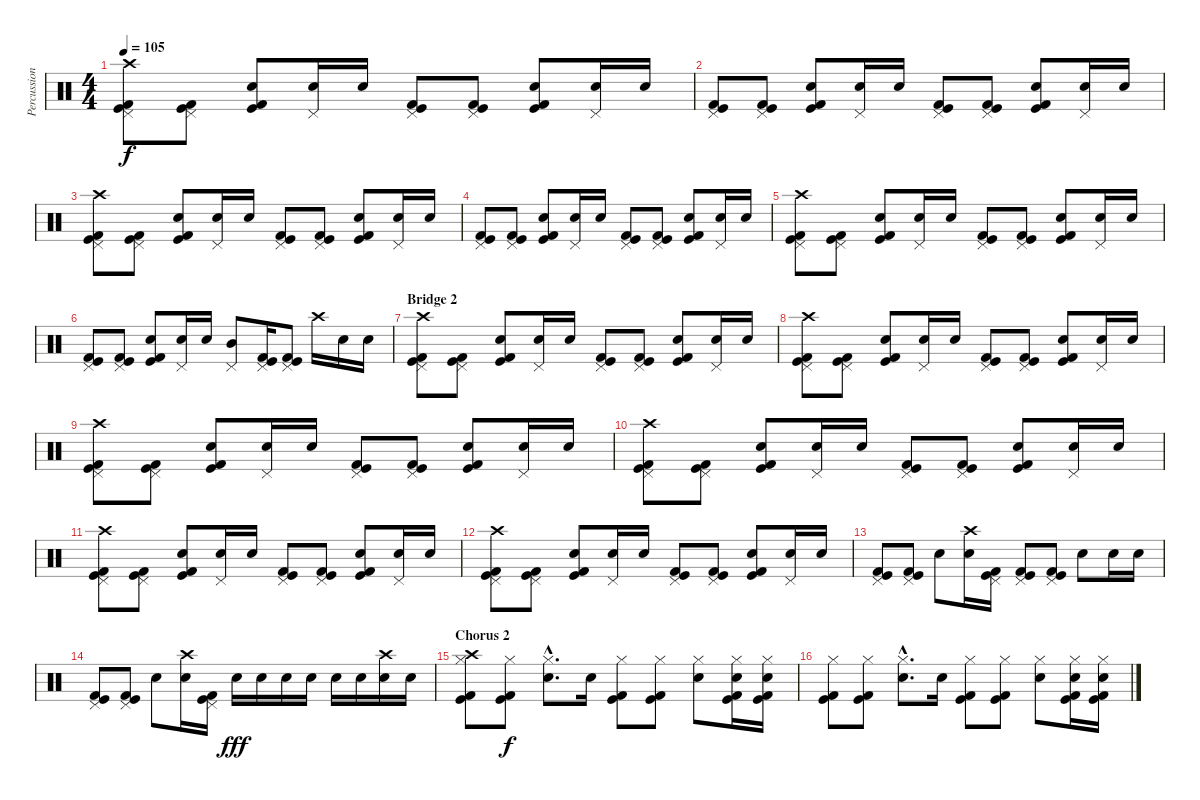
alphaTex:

\track ("Percussion" "Percussion") {instrument percussion}
\staff {score}
\articulation defaults
\ts (4 4)
\tempo 105
\clef neutral
\ks c
("Kick (hit) 2" "Kick (hit)" "Pedal Hi-Hat (hit)" "Crash high (hit)").8{dy f} ("Kick (hit) 2" "Kick (hit)" "Pedal Hi-Hat (hit)").8 ("Kick (hit)" "Kick (hit) 2" "Electric Snare (hit)").8 ("Pedal Hi-Hat (hit)" "Electric Snare (hit)").16 "Snare (hit) 2".16 ("Kick (hit) 2" "Kick (hit)" "Pedal Hi-Hat (hit)").8 ("Kick (hit) 2" "Kick (hit)" "Pedal Hi-Hat (hit)").8 ("Kick (hit)" "Kick (hit) 2" "Electric Snare (hit)").8 ("Pedal Hi-Hat (hit)" "Electric Snare (hit)").16 "Snare (hit) 2".16 |
("Kick (hit) 2" "Kick (hit)" "Pedal Hi-Hat (hit)").8 ("Kick (hit) 2" "Kick (hit)" "Pedal Hi-Hat (hit)").8 ("Kick (hit)" "Kick (hit) 2" "Electric Snare (hit)").8 ("Pedal Hi-Hat (hit)" "Electric Snare (hit)").16 "Snare (hit) 2".16 ("Kick (hit) 2" "Kick (hit)" "Pedal Hi-Hat (hit)").8 ("Kick (hit) 2" "Kick (hit)" "Pedal Hi-Hat (hit)").8 ("Kick (hit)" "Kick (hit) 2" "Electric Snare (hit)").8 ("Pedal Hi-Hat (hit)" "Electric Snare (hit)").16 "Snare (hit) 2".16 |
("Kick (hit) 2" "Kick (hit)" "Pedal Hi-Hat (hit)" "Crash high (hit)").8 ("Kick (hit) 2" "Kick (hit)" "Pedal Hi-Hat (hit)").8 ("Kick (hit)" "Kick (hit) 2" "Electric Snare (hit)").8 ("Pedal Hi-Hat (hit)" "Electric Snare (hit)").16 "Snare (hit) 2".16 ("Kick (hit) 2" "Kick (hit)" "Pedal Hi-Hat (hit)").8 ("Kick (hit) 2" "Kick (hit)" "Pedal Hi-Hat (hit)").8 ("Kick (hit)" "Kick (hit) 2" "Electric Snare (hit)").8 ("Pedal Hi-Hat (hit)" "Electric Snare (hit)").16 "Snare (hit) 2".16 |
("Kick (hit) 2" "Kick (hit)" "Pedal Hi-Hat (hit)").8 ("Kick (hit) 2" "Kick (hit)" "Pedal Hi-Hat (hit)").8 ("Kick (hit)" "Kick (hit) 2" "Electric Snare (hit)").8 ("Pedal Hi-Hat (hit)" "Electric Snare (hit)").16 "Snare (hit) 2".16 ("Kick (hit) 2" "Kick (hit)" "Pedal Hi-Hat (hit)").8 ("Kick (hit) 2" "Kick (hit)" "Pedal Hi-Hat (hit)").8 ("Kick (hit)" "Kick (hit) 2" "Electric Snare (hit)").8 ("Pedal Hi-Hat (hit)" "Electric Snare (hit)").16 "Snare (hit) 2".16 |
("Kick (hit) 2" "Kick (hit)" "Pedal Hi-Hat (hit)" "Crash high (hit)").8 ("Kick (hit) 2" "Kick (hit)" "Pedal Hi-Hat (hit)").8 ("Kick (hit)" "Kick (hit) 2" "Electric Snare (hit)").8 ("Pedal Hi-Hat (hit)" "Electric Snare (hit)").16 "Snare (hit) 2".16 ("Kick (hit) 2" "Kick (hit)" "Pedal Hi-Hat (hit)").8 ("Kick (hit) 2" "Kick (hit)" "Pedal Hi-Hat (hit)").8 ("Kick (hit)" "Kick (hit) 2" "Electric Snare (hit)").8 ("Pedal Hi-Hat (hit)" "Electric Snare (hit)").16 "Snare (hit) 2".16 |
("Kick (hit) 2" "Kick (hit)" "Pedal Hi-Hat (hit)").8 ("Kick (hit) 2" "Kick (hit)" "Pedal Hi-Hat (hit)").8 ("Kick (hit)" "Kick (hit) 2" "Electric Snare (hit)").8 ("Pedal Hi-Hat (hit)" "Electric Snare (hit)").16 "Snare (hit) 2".16 ("Mid Tom (hit)" "Pedal Hi-Hat (hit)").8 ("Kick (hit) 2" "Kick (hit)" "Pedal Hi-Hat (hit)").16 ("Kick (hit) 2" "Kick (hit)" "Pedal Hi-Hat (hit)").8 "Crash high (hit)".16 "Snare (hit) 2".16 "Snare (hit) 2".16 |
\section ("" "Bridge 2")
("Kick (hit) 2" "Kick (hit)" "Pedal Hi-Hat (hit)" "Crash high (hit)").8 ("Kick (hit) 2" "Kick (hit)" "Pedal Hi-Hat (hit)").8 ("Kick (hit)" "Kick (hit) 2" "Electric Snare (hit)").8 ("Pedal Hi-Hat (hit)" "Electric Snare (hit)").16 "Snare (hit) 2".16 ("Kick (hit) 2" "Kick (hit)" "Pedal Hi-Hat (hit)").8 ("Kick (hit) 2" "Kick (hit)" "Pedal Hi-Hat (hit)").8 ("Kick (hit)" "Kick (hit) 2" "Electric Snare (hit)").8 ("Pedal Hi-Hat (hit)" "Electric Snare (hit)").16 "Snare (hit) 2".16 |
("Kick (hit) 2" "Kick (hit)" "Pedal Hi-Hat (hit)" "Crash high (hit)").8 ("Kick (hit) 2" "Kick (hit)" "Pedal Hi-Hat (hit)").8 ("Kick (hit)" "Kick (hit) 2" "Electric Snare (hit)").8 ("Pedal Hi-Hat (hit)" "Electric Snare (hit)").16 "Snare (hit) 2".16 ("Kick (hit) 2" "Kick (hit)" "Pedal Hi-Hat (hit)").8 ("Kick (hit) 2" "Kick (hit)" "Pedal Hi-Hat (hit)").8 ("Kick (hit)" "Kick (hit) 2" "Electric Snare (hit)").8 ("Pedal Hi-Hat (hit)" "Electric Snare (hit)").16 "Electric Snare (hit)".16 |
("Kick (hit) 2" "Kick (hit)" "Pedal Hi-Hat (hit)" "Crash high (hit)").8 ("Kick (hit) 2" "Kick (hit)" "Pedal Hi-Hat (hit)").8 ("Kick (hit)" "Kick (hit) 2" "Electric Snare (hit)").8 ("Pedal Hi-Hat (hit)" "Electric Snare (hit)").16 "Snare (hit) 2".16 ("Kick (hit) 2" "Kick (hit)" "Pedal Hi-Hat (hit)").8 ("Kick (hit) 2" "Kick (hit)" "Pedal Hi-Hat (hit)").8 ("Kick (hit)" "Kick (hit) 2" "Electric Snare (hit)").8 ("Pedal Hi-Hat (hit)" "Electric Snare (hit)").16 "Snare (hit) 2".16 |
("Kick (hit) 2" "Kick (hit)" "Pedal Hi-Hat (hit)" "Crash high (hit)").8 ("Kick (hit) 2" "Kick (hit)" "Pedal Hi-Hat (hit)").8 ("Kick (hit)" "Kick (hit) 2" "Electric Snare (hit)").8 ("Pedal Hi-Hat (hit)" "Electric Snare (hit)").16 "Snare (hit) 2".16 ("Kick (hit) 2" "Kick (hit)" "Pedal Hi-Hat (hit)").8 ("Kick (hit) 2" "Kick (hit)" "Pedal Hi-Hat (hit)").8 ("Kick (hit)" "Kick (hit) 2" "Electric Snare (hit)").8 ("Pedal Hi-Hat (hit)" "Electric Snare (hit)").16 "Electric Snare (hit)".16 |
("Kick (hit) 2" "Kick (hit)" "Pedal Hi-Hat (hit)" "Crash high (hit)").8 ("Kick (hit) 2" "Kick (hit)" "Pedal Hi-Hat (hit)").8 ("Kick (hit)" "Kick (hit) 2" "Electric Snare (hit)").8 ("Pedal Hi-Hat (hit)" "Electric Snare (hit)").16 "Snare (hit) 2".16 ("Kick (hit) 2" "Kick (hit)" "Pedal Hi-Hat (hit)").8 ("Kick (hit) 2" "Kick (hit)" "Pedal Hi-Hat (hit)").8 ("Kick (hit)" "Kick (hit) 2" "Electric Snare (hit)").8 ("Pedal Hi-Hat (hit)" "Electric Snare (hit)").16 "Snare (hit) 2".16 |
("Kick (hit) 2" "Kick (hit)" "Pedal Hi-Hat (hit)" "Crash high (hit)").8 ("Kick (hit) 2" "Kick (hit)" "Pedal Hi-Hat (hit)").8 ("Kick (hit)" "Kick (hit) 2" "Electric Snare (hit)").8 ("Pedal Hi-Hat (hit)" "Electric Snare (hit)").16 "Snare (hit) 2".16 ("Kick (hit) 2" "Kick (hit)" "Pedal Hi-Hat (hit)").8 ("Kick (hit) 2" "Kick (hit)" "Pedal Hi-Hat (hit)").8 ("Kick (hit)" "Kick (hit) 2" "Electric Snare (hit)").8 ("Pedal Hi-Hat (hit)" "Electric Snare (hit)").16 "Electric Snare (hit)".16 |
("Kick (hit) 2" "Kick (hit)" "Pedal Hi-Hat (hit)").8 ("Kick (hit) 2" "Kick (hit)" "Pedal Hi-Hat (hit)").8 "Electric Snare (hit)".8 ("Electric Snare (hit)" "Crash high (hit)").16 ("Kick (hit) 2" "Kick (hit)" "Pedal Hi-Hat (hit)").16 ("Kick (hit) 2" "Kick (hit)" "Pedal Hi-Hat (hit)").8 ("Kick (hit) 2" "Kick (hit)" "Pedal Hi-Hat (hit)").8 "Electric Snare (hit)".8 "Electric Snare (hit)".16 "Electric Snare (hit)".16 |
("Kick (hit) 2" "Kick (hit)" "Pedal Hi-Hat (hit)").8 ("Kick (hit) 2" "Kick (hit)" "Pedal Hi-Hat (hit)").8 "Electric Snare (hit)".8 ("Electric Snare (hit)" "Crash high (hit)").16 ("Kick (hit) 2" "Kick (hit)" "Pedal Hi-Hat (hit)").16 "Electric Snare (hit)".16{dy fff} "Electric Snare (hit)".16 "Electric Snare (hit)".16 "Electric Snare (hit)".16 "Snare (hit) 2".16 "Snare (hit) 2".16 ("Snare (hit) 2" "Crash high (hit)").16 "Snare (hit) 2".16 |
\section ("" "Chorus 2")
("Kick (hit)" "Kick (hit) 2" "Hi-Hat (closed)" "Crash high (hit)").8 ("Kick (hit)" "Kick (hit) 2" "Hi-Hat (closed)").8{dy f} ("Electric Snare (hit)"{hac} "Hi-Hat (closed)"{hac}).8{d} "Electric Snare (hit)".16 ("Kick (hit)" "Kick (hit) 2" "Hi-Hat (closed)").8 ("Kick (hit)" "Kick (hit) 2" "Hi-Hat (closed)").8 ("Electric Snare (hit)" "Hi-Hat (closed)").8 ("Kick (hit) 2" "Kick (hit)" "Electric Snare (hit)" "Hi-Hat (closed)").16 ("Kick (hit) 2" "Kick (hit)" "Electric Snare (hit)" "Hi-Hat (closed)").16 |
("Kick (hit)" "Kick (hit) 2" "Hi-Hat (closed)").8 ("Kick (hit)" "Kick (hit) 2" "Hi-Hat (closed)").8 ("Electric Snare (hit)"{hac} "Hi-Hat (closed)"{hac}).8{d} "Electric Snare (hit)".16 ("Kick (hit)" "Kick (hit) 2" "Hi-Hat (closed)").8 ("Kick (hit)" "Kick (hit) 2" "Hi-Hat (closed)").8 ("Electric Snare (hit)" "Hi-Hat (closed)").8 ("Kick (hit) 2" "Kick (hit)" "Electric Snare (hit)" "Hi-Hat (closed)").16 ("Kick (hit) 2" "Kick (hit)" "Electric Snare (hit)" "Hi-Hat (closed)").16
